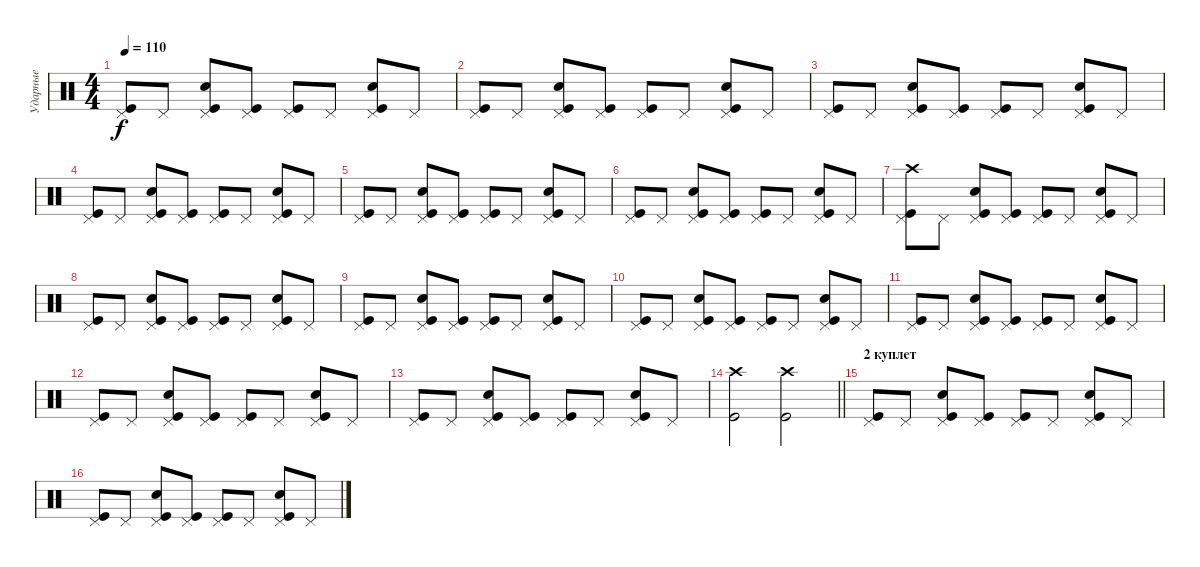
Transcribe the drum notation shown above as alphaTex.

\track ("Ударные" "Ударные") {instrument percussion}
\staff {score}
\articulation defaults
\ts (4 4)
\tempo 110
\clef neutral
\ks c
("Pedal Hi-Hat (hit)" "Kick (hit)").8{dy f} "Pedal Hi-Hat (hit)".8 ("Pedal Hi-Hat (hit)" "Kick (hit)" "Snare (hit) 2").8 ("Pedal Hi-Hat (hit)" "Kick (hit)").8 ("Pedal Hi-Hat (hit)" "Kick (hit)").8 "Pedal Hi-Hat (hit)".8 ("Pedal Hi-Hat (hit)" "Kick (hit)" "Snare (hit) 2").8 "Pedal Hi-Hat (hit)".8 |
("Pedal Hi-Hat (hit)" "Kick (hit)").8 "Pedal Hi-Hat (hit)".8 ("Pedal Hi-Hat (hit)" "Kick (hit)" "Snare (hit) 2").8 ("Pedal Hi-Hat (hit)" "Kick (hit)").8 ("Pedal Hi-Hat (hit)" "Kick (hit)").8 "Pedal Hi-Hat (hit)".8 ("Pedal Hi-Hat (hit)" "Kick (hit)" "Snare (hit) 2").8 "Pedal Hi-Hat (hit)".8 |
("Pedal Hi-Hat (hit)" "Kick (hit)").8 "Pedal Hi-Hat (hit)".8 ("Pedal Hi-Hat (hit)" "Kick (hit)" "Snare (hit) 2").8 ("Pedal Hi-Hat (hit)" "Kick (hit)").8 ("Pedal Hi-Hat (hit)" "Kick (hit)").8 "Pedal Hi-Hat (hit)".8 ("Pedal Hi-Hat (hit)" "Kick (hit)" "Snare (hit) 2").8 "Pedal Hi-Hat (hit)".8 |
("Pedal Hi-Hat (hit)" "Kick (hit)").8 "Pedal Hi-Hat (hit)".8 ("Pedal Hi-Hat (hit)" "Kick (hit)" "Snare (hit) 2").8 ("Pedal Hi-Hat (hit)" "Kick (hit)").8 ("Pedal Hi-Hat (hit)" "Kick (hit)").8 "Pedal Hi-Hat (hit)".8 ("Pedal Hi-Hat (hit)" "Kick (hit)" "Snare (hit) 2").8 "Pedal Hi-Hat (hit)".8 |
("Pedal Hi-Hat (hit)" "Kick (hit)").8 "Pedal Hi-Hat (hit)".8 ("Pedal Hi-Hat (hit)" "Kick (hit)" "Snare (hit) 2").8 ("Pedal Hi-Hat (hit)" "Kick (hit)").8 ("Pedal Hi-Hat (hit)" "Kick (hit)").8 "Pedal Hi-Hat (hit)".8 ("Pedal Hi-Hat (hit)" "Kick (hit)" "Snare (hit) 2").8 "Pedal Hi-Hat (hit)".8 |
("Pedal Hi-Hat (hit)" "Kick (hit)").8 "Pedal Hi-Hat (hit)".8 ("Pedal Hi-Hat (hit)" "Kick (hit)" "Snare (hit) 2").8 ("Pedal Hi-Hat (hit)" "Kick (hit)").8 ("Pedal Hi-Hat (hit)" "Kick (hit)").8 "Pedal Hi-Hat (hit)".8 ("Pedal Hi-Hat (hit)" "Kick (hit)" "Snare (hit) 2").8 "Pedal Hi-Hat (hit)".8 |
("Pedal Hi-Hat (hit)" "Kick (hit)" "Crash high (hit)").8 "Pedal Hi-Hat (hit)".8 ("Pedal Hi-Hat (hit)" "Kick (hit)" "Snare (hit) 2").8 ("Pedal Hi-Hat (hit)" "Kick (hit)").8 ("Pedal Hi-Hat (hit)" "Kick (hit)").8 "Pedal Hi-Hat (hit)".8 ("Pedal Hi-Hat (hit)" "Kick (hit)" "Snare (hit) 2").8 "Pedal Hi-Hat (hit)".8 |
("Pedal Hi-Hat (hit)" "Kick (hit)").8 "Pedal Hi-Hat (hit)".8 ("Pedal Hi-Hat (hit)" "Kick (hit)" "Snare (hit) 2").8 ("Pedal Hi-Hat (hit)" "Kick (hit)").8 ("Pedal Hi-Hat (hit)" "Kick (hit)").8 "Pedal Hi-Hat (hit)".8 ("Pedal Hi-Hat (hit)" "Kick (hit)" "Snare (hit) 2").8 "Pedal Hi-Hat (hit)".8 |
("Pedal Hi-Hat (hit)" "Kick (hit)").8 "Pedal Hi-Hat (hit)".8 ("Pedal Hi-Hat (hit)" "Kick (hit)" "Snare (hit) 2").8 ("Pedal Hi-Hat (hit)" "Kick (hit)").8 ("Pedal Hi-Hat (hit)" "Kick (hit)").8 "Pedal Hi-Hat (hit)".8 ("Pedal Hi-Hat (hit)" "Kick (hit)" "Snare (hit) 2").8 "Pedal Hi-Hat (hit)".8 |
("Pedal Hi-Hat (hit)" "Kick (hit)").8 "Pedal Hi-Hat (hit)".8 ("Pedal Hi-Hat (hit)" "Kick (hit)" "Snare (hit) 2").8 ("Pedal Hi-Hat (hit)" "Kick (hit)").8 ("Pedal Hi-Hat (hit)" "Kick (hit)").8 "Pedal Hi-Hat (hit)".8 ("Pedal Hi-Hat (hit)" "Kick (hit)" "Snare (hit) 2").8 "Pedal Hi-Hat (hit)".8 |
("Pedal Hi-Hat (hit)" "Kick (hit)").8 "Pedal Hi-Hat (hit)".8 ("Pedal Hi-Hat (hit)" "Kick (hit)" "Snare (hit) 2").8 ("Pedal Hi-Hat (hit)" "Kick (hit)").8 ("Pedal Hi-Hat (hit)" "Kick (hit)").8 "Pedal Hi-Hat (hit)".8 ("Pedal Hi-Hat (hit)" "Kick (hit)" "Snare (hit) 2").8 "Pedal Hi-Hat (hit)".8 |
("Pedal Hi-Hat (hit)" "Kick (hit)").8 "Pedal Hi-Hat (hit)".8 ("Pedal Hi-Hat (hit)" "Kick (hit)" "Snare (hit) 2").8 ("Pedal Hi-Hat (hit)" "Kick (hit)").8 ("Pedal Hi-Hat (hit)" "Kick (hit)").8 "Pedal Hi-Hat (hit)".8 ("Pedal Hi-Hat (hit)" "Kick (hit)" "Snare (hit) 2").8 "Pedal Hi-Hat (hit)".8 |
("Pedal Hi-Hat (hit)" "Kick (hit)").8 "Pedal Hi-Hat (hit)".8 ("Pedal Hi-Hat (hit)" "Kick (hit)" "Snare (hit) 2").8 ("Pedal Hi-Hat (hit)" "Kick (hit)").8 ("Pedal Hi-Hat (hit)" "Kick (hit)").8 "Pedal Hi-Hat (hit)".8 ("Pedal Hi-Hat (hit)" "Kick (hit)" "Snare (hit) 2").8 "Pedal Hi-Hat (hit)".8 |
\barLineRight lightlight
("Kick (hit)" "Crash high (hit)").2 ("Kick (hit)" "Crash high (hit)").2 |
\section ("" "2 куплет")
("Pedal Hi-Hat (hit)" "Kick (hit)").8 "Pedal Hi-Hat (hit)".8 ("Pedal Hi-Hat (hit)" "Kick (hit)" "Snare (hit) 2").8 ("Pedal Hi-Hat (hit)" "Kick (hit)").8 ("Pedal Hi-Hat (hit)" "Kick (hit)").8 "Pedal Hi-Hat (hit)".8 ("Pedal Hi-Hat (hit)" "Kick (hit)" "Snare (hit) 2").8 "Pedal Hi-Hat (hit)".8 |
("Pedal Hi-Hat (hit)" "Kick (hit)").8 "Pedal Hi-Hat (hit)".8 ("Pedal Hi-Hat (hit)" "Kick (hit)" "Snare (hit) 2").8 ("Pedal Hi-Hat (hit)" "Kick (hit)").8 ("Pedal Hi-Hat (hit)" "Kick (hit)").8 "Pedal Hi-Hat (hit)".8 ("Pedal Hi-Hat (hit)" "Kick (hit)" "Snare (hit) 2").8 "Pedal Hi-Hat (hit)".8
